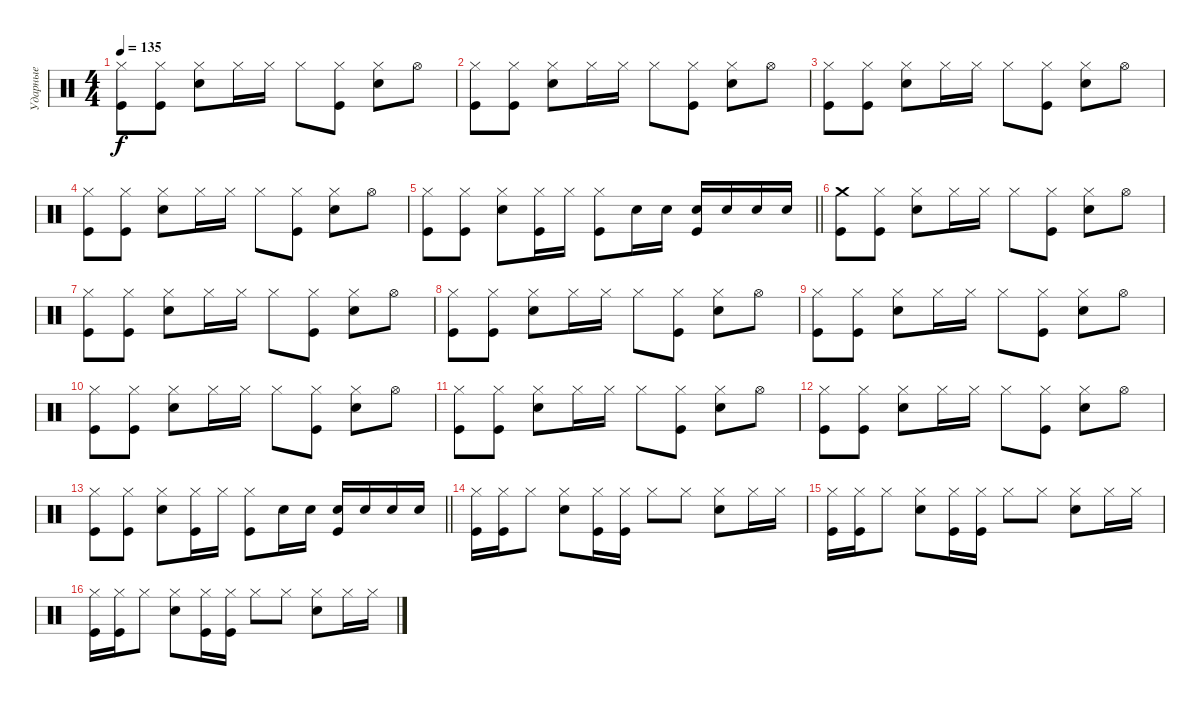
\track ("Ударные" "Ударные") {instrument percussion}
\staff {score}
\articulation defaults
\ts (4 4)
\tempo 135
\clef neutral
\ks c
("Hi-Hat (closed)" "Kick (hit)").8{dy f} ("Hi-Hat (closed)" "Kick (hit)").8 ("Hi-Hat (closed)" "Electric Snare (hit)").8 "Hi-Hat (closed)".16 "Hi-Hat (closed)".16 "Hi-Hat (closed)".8 ("Hi-Hat (closed)" "Kick (hit)").8 ("Hi-Hat (closed)" "Electric Snare (hit)").8 "Hi-Hat (open)".8 |
("Hi-Hat (closed)" "Kick (hit)").8 ("Hi-Hat (closed)" "Kick (hit)").8 ("Hi-Hat (closed)" "Electric Snare (hit)").8 "Hi-Hat (closed)".16 "Hi-Hat (closed)".16 "Hi-Hat (closed)".8 ("Hi-Hat (closed)" "Kick (hit)").8 ("Hi-Hat (closed)" "Electric Snare (hit)").8 "Hi-Hat (open)".8 |
("Hi-Hat (closed)" "Kick (hit)").8 ("Hi-Hat (closed)" "Kick (hit)").8 ("Hi-Hat (closed)" "Electric Snare (hit)").8 "Hi-Hat (closed)".16 "Hi-Hat (closed)".16 "Hi-Hat (closed)".8 ("Hi-Hat (closed)" "Kick (hit)").8 ("Hi-Hat (closed)" "Electric Snare (hit)").8 "Hi-Hat (open)".8 |
("Hi-Hat (closed)" "Kick (hit)").8 ("Hi-Hat (closed)" "Kick (hit)").8 ("Hi-Hat (closed)" "Electric Snare (hit)").8 "Hi-Hat (closed)".16 "Hi-Hat (closed)".16 "Hi-Hat (closed)".8 ("Hi-Hat (closed)" "Kick (hit)").8 ("Hi-Hat (closed)" "Electric Snare (hit)").8 "Hi-Hat (open)".8 |
\barLineRight lightlight
("Hi-Hat (closed)" "Kick (hit)").8 ("Hi-Hat (closed)" "Kick (hit)").8 ("Hi-Hat (closed)" "Electric Snare (hit)").8 ("Hi-Hat (closed)" "Kick (hit)").16 "Hi-Hat (closed)".16 ("Hi-Hat (closed)" "Kick (hit)").8 "Electric Snare (hit)".16 "Electric Snare (hit)".16 ("Electric Snare (hit)" "Kick (hit)").16 "Electric Snare (hit)".16 "Electric Snare (hit)".16 "Electric Snare (hit)".16 |
\section ("" " ")
("Crash medium (hit)" "Kick (hit)").8 ("Hi-Hat (closed)" "Kick (hit)").8 ("Hi-Hat (closed)" "Electric Snare (hit)").8 "Hi-Hat (closed)".16 "Hi-Hat (closed)".16 "Hi-Hat (closed)".8 ("Hi-Hat (closed)" "Kick (hit)").8 ("Hi-Hat (closed)" "Electric Snare (hit)").8 "Hi-Hat (open)".8 |
("Hi-Hat (closed)" "Kick (hit)").8 ("Hi-Hat (closed)" "Kick (hit)").8 ("Hi-Hat (closed)" "Electric Snare (hit)").8 "Hi-Hat (closed)".16 "Hi-Hat (closed)".16 "Hi-Hat (closed)".8 ("Hi-Hat (closed)" "Kick (hit)").8 ("Hi-Hat (closed)" "Electric Snare (hit)").8 "Hi-Hat (open)".8 |
("Hi-Hat (closed)" "Kick (hit)").8 ("Hi-Hat (closed)" "Kick (hit)").8 ("Hi-Hat (closed)" "Electric Snare (hit)").8 "Hi-Hat (closed)".16 "Hi-Hat (closed)".16 "Hi-Hat (closed)".8 ("Hi-Hat (closed)" "Kick (hit)").8 ("Hi-Hat (closed)" "Electric Snare (hit)").8 "Hi-Hat (open)".8 |
("Hi-Hat (closed)" "Kick (hit)").8 ("Hi-Hat (closed)" "Kick (hit)").8 ("Hi-Hat (closed)" "Electric Snare (hit)").8 "Hi-Hat (closed)".16 "Hi-Hat (closed)".16 "Hi-Hat (closed)".8 ("Hi-Hat (closed)" "Kick (hit)").8 ("Hi-Hat (closed)" "Electric Snare (hit)").8 "Hi-Hat (open)".8 |
("Hi-Hat (closed)" "Kick (hit)").8 ("Hi-Hat (closed)" "Kick (hit)").8 ("Hi-Hat (closed)" "Electric Snare (hit)").8 "Hi-Hat (closed)".16 "Hi-Hat (closed)".16 "Hi-Hat (closed)".8 ("Hi-Hat (closed)" "Kick (hit)").8 ("Hi-Hat (closed)" "Electric Snare (hit)").8 "Hi-Hat (open)".8 |
("Hi-Hat (closed)" "Kick (hit)").8 ("Hi-Hat (closed)" "Kick (hit)").8 ("Hi-Hat (closed)" "Electric Snare (hit)").8 "Hi-Hat (closed)".16 "Hi-Hat (closed)".16 "Hi-Hat (closed)".8 ("Hi-Hat (closed)" "Kick (hit)").8 ("Hi-Hat (closed)" "Electric Snare (hit)").8 "Hi-Hat (open)".8 |
("Hi-Hat (closed)" "Kick (hit)").8 ("Hi-Hat (closed)" "Kick (hit)").8 ("Hi-Hat (closed)" "Electric Snare (hit)").8 "Hi-Hat (closed)".16 "Hi-Hat (closed)".16 "Hi-Hat (closed)".8 ("Hi-Hat (closed)" "Kick (hit)").8 ("Hi-Hat (closed)" "Electric Snare (hit)").8 "Hi-Hat (open)".8 |
\barLineRight lightlight
("Hi-Hat (closed)" "Kick (hit)").8 ("Hi-Hat (closed)" "Kick (hit)").8 ("Hi-Hat (closed)" "Electric Snare (hit)").8 ("Hi-Hat (closed)" "Kick (hit)").16 "Hi-Hat (closed)".16 ("Hi-Hat (closed)" "Kick (hit)").8 "Electric Snare (hit)".16 "Electric Snare (hit)".16 ("Electric Snare (hit)" "Kick (hit)").16 "Electric Snare (hit)".16 "Electric Snare (hit)".16 "Electric Snare (hit)".16 |
\section ("" " ")
("Hi-Hat (closed)" "Kick (hit)").16 ("Hi-Hat (closed)" "Kick (hit)").16 "Hi-Hat (closed)".8 ("Hi-Hat (closed)" "Electric Snare (hit)").8 ("Hi-Hat (closed)" "Kick (hit)").16 ("Hi-Hat (closed)" "Kick (hit)").16 "Hi-Hat (closed)".8 "Hi-Hat (closed)".8 ("Hi-Hat (closed)" "Electric Snare (hit)").8 "Hi-Hat (closed)".16 "Hi-Hat (closed)".16 |
("Hi-Hat (closed)" "Kick (hit)").16 ("Hi-Hat (closed)" "Kick (hit)").16 "Hi-Hat (closed)".8 ("Hi-Hat (closed)" "Electric Snare (hit)").8 ("Hi-Hat (closed)" "Kick (hit)").16 ("Hi-Hat (closed)" "Kick (hit)").16 "Hi-Hat (closed)".8 "Hi-Hat (closed)".8 ("Hi-Hat (closed)" "Electric Snare (hit)").8 "Hi-Hat (closed)".16 "Hi-Hat (closed)".16 |
("Hi-Hat (closed)" "Kick (hit)").16 ("Hi-Hat (closed)" "Kick (hit)").16 "Hi-Hat (closed)".8 ("Hi-Hat (closed)" "Electric Snare (hit)").8 ("Hi-Hat (closed)" "Kick (hit)").16 ("Hi-Hat (closed)" "Kick (hit)").16 "Hi-Hat (closed)".8 "Hi-Hat (closed)".8 ("Hi-Hat (closed)" "Electric Snare (hit)").8 "Hi-Hat (closed)".16 "Hi-Hat (closed)".16
